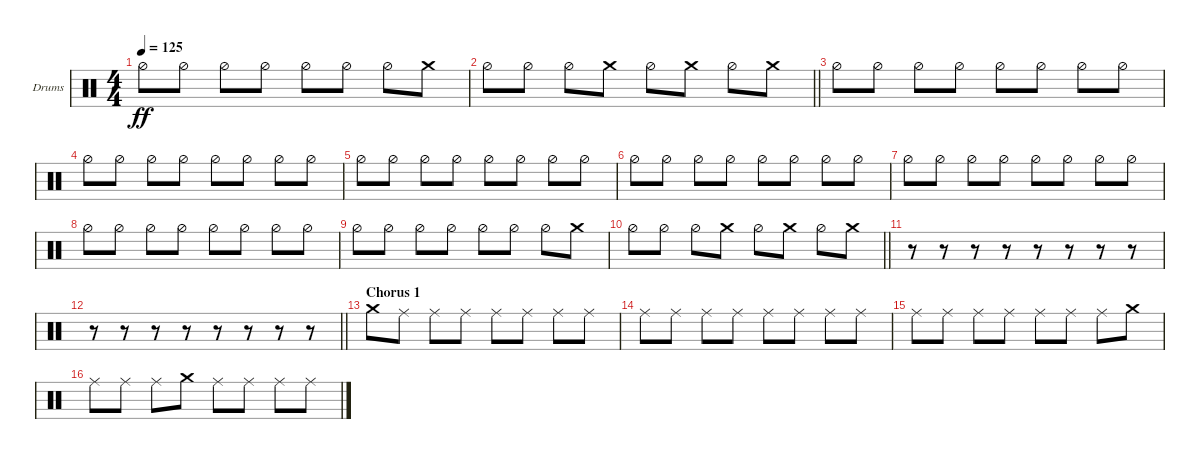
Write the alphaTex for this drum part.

\bracketExtendMode groupsimilarinstruments
\firstSystemTrackNameOrientation horizontal
\otherSystemsTrackNameOrientation horizontal
\track ("Nick Menza" "Drums") {instrument percussion}
\staff {score}
\articulation defaults
\ts (4 4)
\tempo 125
\clef neutral
\scale
0.333333
\ks c "Hi-Hat (half)".8{dy ff} "Hi-Hat (half)".8 "Hi-Hat (half)".8 "Hi-Hat (half)".8 "Hi-Hat (half)".8 "Hi-Hat (half)".8 "Hi-Hat (half)".8 "Crash medium (hit)".8
|
\scale
0.355932
\barLineRight lightlight "Hi-Hat (half)".8 "Hi-Hat (half)".8 "Hi-Hat (half)".8 "Crash medium (hit)".8 "Hi-Hat (half)".8 "Crash medium (hit)".8 "Hi-Hat (half)".8 "Crash medium (hit)".8
|
"Hi-Hat (half)".8 "Hi-Hat (half)".8 "Hi-Hat (half)".8 "Hi-Hat (half)".8 "Hi-Hat (half)".8 "Hi-Hat (half)".8 "Hi-Hat (half)".8 "Hi-Hat (half)".8 |
"Hi-Hat (half)".8 "Hi-Hat (half)".8 "Hi-Hat (half)".8 "Hi-Hat (half)".8 "Hi-Hat (half)".8 "Hi-Hat (half)".8 "Hi-Hat (half)".8 "Hi-Hat (half)".8 |
"Hi-Hat (half)".8 "Hi-Hat (half)".8 "Hi-Hat (half)".8 "Hi-Hat (half)".8 "Hi-Hat (half)".8 "Hi-Hat (half)".8 "Hi-Hat (half)".8 "Hi-Hat (half)".8 |
"Hi-Hat (half)".8 "Hi-Hat (half)".8 "Hi-Hat (half)".8 "Hi-Hat (half)".8 "Hi-Hat (half)".8 "Hi-Hat (half)".8 "Hi-Hat (half)".8 "Hi-Hat (half)".8 |
"Hi-Hat (half)".8 "Hi-Hat (half)".8 "Hi-Hat (half)".8 "Hi-Hat (half)".8 "Hi-Hat (half)".8 "Hi-Hat (half)".8 "Hi-Hat (half)".8 "Hi-Hat (half)".8 |
\scale
0.322034 "Hi-Hat (half)".8 "Hi-Hat (half)".8 "Hi-Hat (half)".8 "Hi-Hat (half)".8 "Hi-Hat (half)".8 "Hi-Hat (half)".8 "Hi-Hat (half)".8 "Hi-Hat (half)".8 |
\scale
0.322034 "Hi-Hat (half)".8 "Hi-Hat (half)".8 "Hi-Hat (half)".8 "Hi-Hat (half)".8 "Hi-Hat (half)".8 "Hi-Hat (half)".8 "Hi-Hat (half)".8 "Crash medium (hit)".8 |
\scale
0.333333
\barLineRight lightlight "Hi-Hat (half)".8 "Hi-Hat (half)".8 "Hi-Hat (half)".8 "Crash medium (hit)".8 "Hi-Hat (half)".8 "Crash medium (hit)".8 "Hi-Hat (half)".8 "Crash medium (hit)".8
|
\scale
0.333333 r.8 r.8 r.8 r.8 r.8 r.8 r.8 r.8 |
\scale
0.333333
\barLineRight lightlight
r.8 r.8 r.8 r.8 r.8 r.8 r.8 r.8 |
\section ("" "Chorus 1")
\scale
0.333333 "Crash medium (hit)".8 "Ride (middle)".8 "Ride (middle)".8 "Ride (middle)".8 "Ride (middle)".8 "Ride (middle)".8 "Ride (middle)".8 "Ride (middle)".8 |
\scale
0.333333 "Ride (middle)".8 "Ride (middle)".8 "Ride (middle)".8 "Ride (middle)".8 "Ride (middle)".8 "Ride (middle)".8 "Ride (middle)".8 "Ride (middle)".8 |
\scale
0.333333 "Ride (middle)".8 "Ride (middle)".8 "Ride (middle)".8 "Ride (middle)".8 "Ride (middle)".8 "Ride (middle)".8 "Ride (middle)".8 "Crash medium (hit)".8 |
\scale
0.333333 "Ride (middle)".8 "Ride (middle)".8 "Ride (middle)".8 "Crash medium (hit)".8 "Ride (middle)".8 "Ride (middle)".8 "Ride (middle)".8 "Ride (middle)".8
